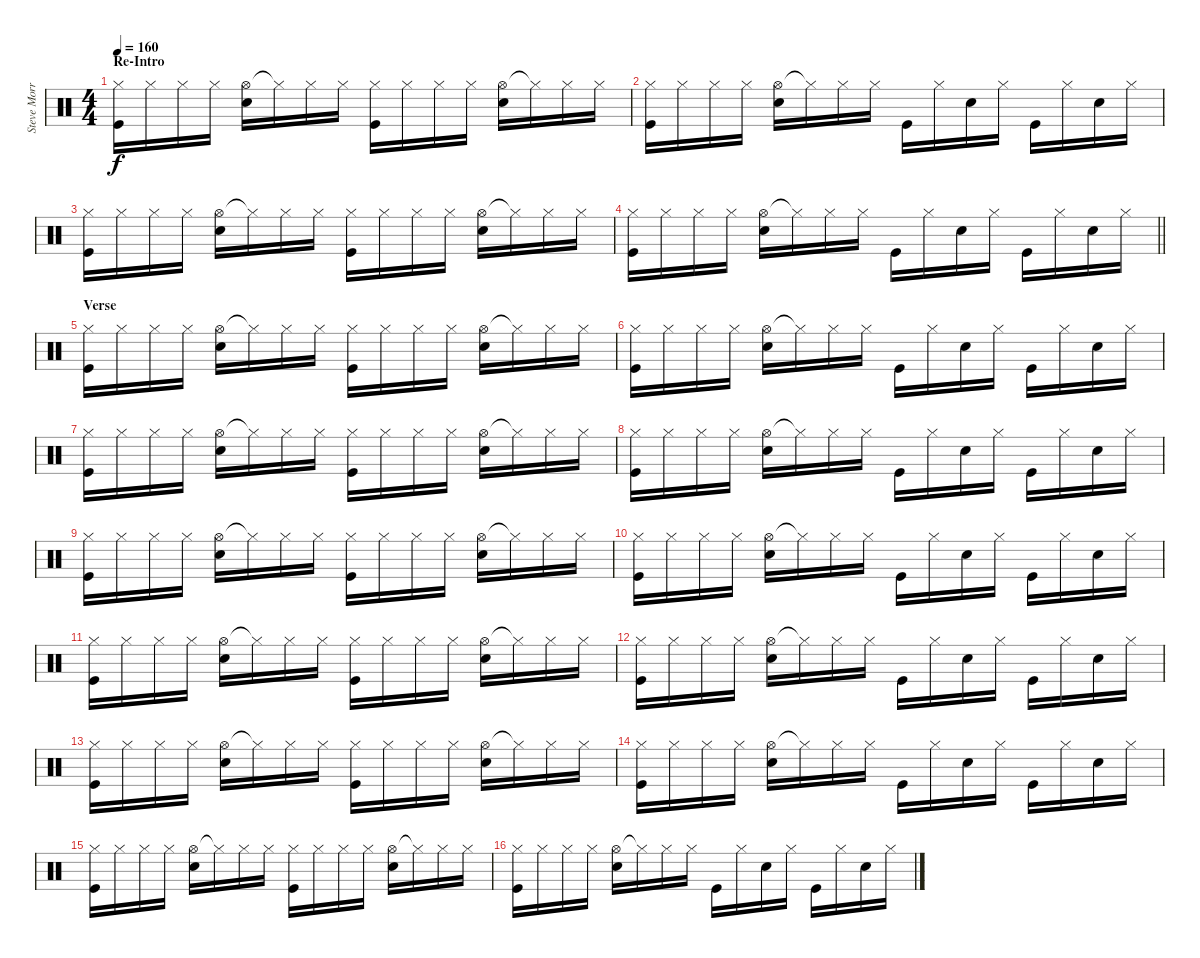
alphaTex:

\track ("Steve Morris" "Steve Morr") {instrument percussion}
\staff {score}
\articulation defaults
\ts (4 4)
\section ("" "Re-Intro")
\tempo 160
\clef neutral
\ks c
("Hi-Hat (closed)" "Kick (hit)").16{dy f} "Hi-Hat (closed)".16 "Hi-Hat (closed)".16 "Hi-Hat (closed)".16 ("Hi-Hat (open)" "Electric Snare (hit)").16 "Hi-Hat (closed)"{t}.16 "Hi-Hat (closed)".16 "Hi-Hat (closed)".16 ("Hi-Hat (closed)" "Kick (hit)").16 "Hi-Hat (closed)".16 "Hi-Hat (closed)".16 "Hi-Hat (closed)".16 ("Hi-Hat (open)" "Electric Snare (hit)").16 "Hi-Hat (closed)"{t}.16 "Hi-Hat (closed)".16 "Hi-Hat (closed)".16 |
("Hi-Hat (closed)" "Kick (hit)").16 "Hi-Hat (closed)".16 "Hi-Hat (closed)".16 "Hi-Hat (closed)".16 ("Hi-Hat (open)" "Electric Snare (hit)").16 "Hi-Hat (closed)"{t}.16 "Hi-Hat (closed)".16 "Hi-Hat (closed)".16 "Kick (hit)".16 "Hi-Hat (closed)".16 "Electric Snare (hit)".16 "Hi-Hat (closed)".16 "Kick (hit)".16 "Hi-Hat (closed)".16 "Electric Snare (hit)".16 "Hi-Hat (closed)".16 |
("Hi-Hat (closed)" "Kick (hit)").16 "Hi-Hat (closed)".16 "Hi-Hat (closed)".16 "Hi-Hat (closed)".16 ("Hi-Hat (open)" "Electric Snare (hit)").16 "Hi-Hat (closed)"{t}.16 "Hi-Hat (closed)".16 "Hi-Hat (closed)".16 ("Hi-Hat (closed)" "Kick (hit)").16 "Hi-Hat (closed)".16 "Hi-Hat (closed)".16 "Hi-Hat (closed)".16 ("Hi-Hat (open)" "Electric Snare (hit)").16 "Hi-Hat (closed)"{t}.16 "Hi-Hat (closed)".16 "Hi-Hat (closed)".16 |
\barLineRight lightlight
("Hi-Hat (closed)" "Kick (hit)").16 "Hi-Hat (closed)".16 "Hi-Hat (closed)".16 "Hi-Hat (closed)".16 ("Hi-Hat (open)" "Electric Snare (hit)").16 "Hi-Hat (closed)"{t}.16 "Hi-Hat (closed)".16 "Hi-Hat (closed)".16 "Kick (hit)".16 "Hi-Hat (closed)".16 "Electric Snare (hit)".16 "Hi-Hat (closed)".16 "Kick (hit)".16 "Hi-Hat (closed)".16 "Electric Snare (hit)".16 "Hi-Hat (closed)".16 |
\section ("" "Verse")
("Hi-Hat (closed)" "Kick (hit)").16 "Hi-Hat (closed)".16 "Hi-Hat (closed)".16 "Hi-Hat (closed)".16 ("Hi-Hat (open)" "Electric Snare (hit)").16 "Hi-Hat (closed)"{t}.16 "Hi-Hat (closed)".16 "Hi-Hat (closed)".16 ("Hi-Hat (closed)" "Kick (hit)").16 "Hi-Hat (closed)".16 "Hi-Hat (closed)".16 "Hi-Hat (closed)".16 ("Hi-Hat (open)" "Electric Snare (hit)").16 "Hi-Hat (closed)"{t}.16 "Hi-Hat (closed)".16 "Hi-Hat (closed)".16 |
("Hi-Hat (closed)" "Kick (hit)").16 "Hi-Hat (closed)".16 "Hi-Hat (closed)".16 "Hi-Hat (closed)".16 ("Hi-Hat (open)" "Electric Snare (hit)").16 "Hi-Hat (closed)"{t}.16 "Hi-Hat (closed)".16 "Hi-Hat (closed)".16 "Kick (hit)".16 "Hi-Hat (closed)".16 "Electric Snare (hit)".16 "Hi-Hat (closed)".16 "Kick (hit)".16 "Hi-Hat (closed)".16 "Electric Snare (hit)".16 "Hi-Hat (closed)".16 |
("Hi-Hat (closed)" "Kick (hit)").16 "Hi-Hat (closed)".16 "Hi-Hat (closed)".16 "Hi-Hat (closed)".16 ("Hi-Hat (open)" "Electric Snare (hit)").16 "Hi-Hat (closed)"{t}.16 "Hi-Hat (closed)".16 "Hi-Hat (closed)".16 ("Hi-Hat (closed)" "Kick (hit)").16 "Hi-Hat (closed)".16 "Hi-Hat (closed)".16 "Hi-Hat (closed)".16 ("Hi-Hat (open)" "Electric Snare (hit)").16 "Hi-Hat (closed)"{t}.16 "Hi-Hat (closed)".16 "Hi-Hat (closed)".16 |
("Hi-Hat (closed)" "Kick (hit)").16 "Hi-Hat (closed)".16 "Hi-Hat (closed)".16 "Hi-Hat (closed)".16 ("Hi-Hat (open)" "Electric Snare (hit)").16 "Hi-Hat (closed)"{t}.16 "Hi-Hat (closed)".16 "Hi-Hat (closed)".16 "Kick (hit)".16 "Hi-Hat (closed)".16 "Electric Snare (hit)".16 "Hi-Hat (closed)".16 "Kick (hit)".16 "Hi-Hat (closed)".16 "Electric Snare (hit)".16 "Hi-Hat (closed)".16 |
("Hi-Hat (closed)" "Kick (hit)").16 "Hi-Hat (closed)".16 "Hi-Hat (closed)".16 "Hi-Hat (closed)".16 ("Hi-Hat (open)" "Electric Snare (hit)").16 "Hi-Hat (closed)"{t}.16 "Hi-Hat (closed)".16 "Hi-Hat (closed)".16 ("Hi-Hat (closed)" "Kick (hit)").16 "Hi-Hat (closed)".16 "Hi-Hat (closed)".16 "Hi-Hat (closed)".16 ("Hi-Hat (open)" "Electric Snare (hit)").16 "Hi-Hat (closed)"{t}.16 "Hi-Hat (closed)".16 "Hi-Hat (closed)".16 |
("Hi-Hat (closed)" "Kick (hit)").16 "Hi-Hat (closed)".16 "Hi-Hat (closed)".16 "Hi-Hat (closed)".16 ("Hi-Hat (open)" "Electric Snare (hit)").16 "Hi-Hat (closed)"{t}.16 "Hi-Hat (closed)".16 "Hi-Hat (closed)".16 "Kick (hit)".16 "Hi-Hat (closed)".16 "Electric Snare (hit)".16 "Hi-Hat (closed)".16 "Kick (hit)".16 "Hi-Hat (closed)".16 "Electric Snare (hit)".16 "Hi-Hat (closed)".16 |
("Hi-Hat (closed)" "Kick (hit)").16 "Hi-Hat (closed)".16 "Hi-Hat (closed)".16 "Hi-Hat (closed)".16 ("Hi-Hat (open)" "Electric Snare (hit)").16 "Hi-Hat (closed)"{t}.16 "Hi-Hat (closed)".16 "Hi-Hat (closed)".16 ("Hi-Hat (closed)" "Kick (hit)").16 "Hi-Hat (closed)".16 "Hi-Hat (closed)".16 "Hi-Hat (closed)".16 ("Hi-Hat (open)" "Electric Snare (hit)").16 "Hi-Hat (closed)"{t}.16 "Hi-Hat (closed)".16 "Hi-Hat (closed)".16 |
("Hi-Hat (closed)" "Kick (hit)").16 "Hi-Hat (closed)".16 "Hi-Hat (closed)".16 "Hi-Hat (closed)".16 ("Hi-Hat (open)" "Electric Snare (hit)").16 "Hi-Hat (closed)"{t}.16 "Hi-Hat (closed)".16 "Hi-Hat (closed)".16 "Kick (hit)".16 "Hi-Hat (closed)".16 "Electric Snare (hit)".16 "Hi-Hat (closed)".16 "Kick (hit)".16 "Hi-Hat (closed)".16 "Electric Snare (hit)".16 "Hi-Hat (closed)".16 |
("Hi-Hat (closed)" "Kick (hit)").16 "Hi-Hat (closed)".16 "Hi-Hat (closed)".16 "Hi-Hat (closed)".16 ("Hi-Hat (open)" "Electric Snare (hit)").16 "Hi-Hat (closed)"{t}.16 "Hi-Hat (closed)".16 "Hi-Hat (closed)".16 ("Hi-Hat (closed)" "Kick (hit)").16 "Hi-Hat (closed)".16 "Hi-Hat (closed)".16 "Hi-Hat (closed)".16 ("Hi-Hat (open)" "Electric Snare (hit)").16 "Hi-Hat (closed)"{t}.16 "Hi-Hat (closed)".16 "Hi-Hat (closed)".16 |
("Hi-Hat (closed)" "Kick (hit)").16 "Hi-Hat (closed)".16 "Hi-Hat (closed)".16 "Hi-Hat (closed)".16 ("Hi-Hat (open)" "Electric Snare (hit)").16 "Hi-Hat (closed)"{t}.16 "Hi-Hat (closed)".16 "Hi-Hat (closed)".16 "Kick (hit)".16 "Hi-Hat (closed)".16 "Electric Snare (hit)".16 "Hi-Hat (closed)".16 "Kick (hit)".16 "Hi-Hat (closed)".16 "Electric Snare (hit)".16 "Hi-Hat (closed)".16 |
("Hi-Hat (closed)" "Kick (hit)").16 "Hi-Hat (closed)".16 "Hi-Hat (closed)".16 "Hi-Hat (closed)".16 ("Hi-Hat (open)" "Electric Snare (hit)").16 "Hi-Hat (closed)"{t}.16 "Hi-Hat (closed)".16 "Hi-Hat (closed)".16 ("Hi-Hat (closed)" "Kick (hit)").16 "Hi-Hat (closed)".16 "Hi-Hat (closed)".16 "Hi-Hat (closed)".16 ("Hi-Hat (open)" "Electric Snare (hit)").16 "Hi-Hat (closed)"{t}.16 "Hi-Hat (closed)".16 "Hi-Hat (closed)".16 |
("Hi-Hat (closed)" "Kick (hit)").16 "Hi-Hat (closed)".16 "Hi-Hat (closed)".16 "Hi-Hat (closed)".16 ("Hi-Hat (open)" "Electric Snare (hit)").16 "Hi-Hat (closed)"{t}.16 "Hi-Hat (closed)".16 "Hi-Hat (closed)".16 "Kick (hit)".16 "Hi-Hat (closed)".16 "Electric Snare (hit)".16 "Hi-Hat (closed)".16 "Kick (hit)".16 "Hi-Hat (closed)".16 "Electric Snare (hit)".16 "Hi-Hat (closed)".16
